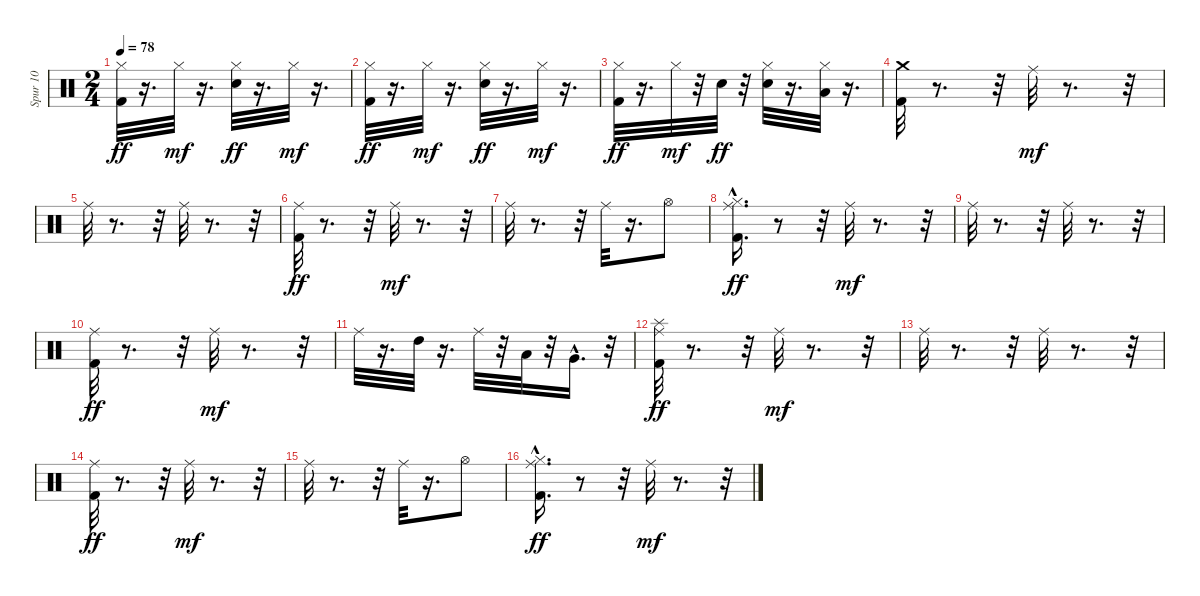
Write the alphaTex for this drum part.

\track ("Spur 10" "Spur 10") {instrument percussion}
\staff {score}
\articulation defaults
\ts (2 4)
\tempo 78
\clef neutral
\ks c
("Hi-Hat (closed)" "Kick (hit) 2").32{dy ff} r.16{d} "Hi-Hat (closed)".32{dy mf} r.16{d} ("Hi-Hat (closed)" "Snare (hit) 2").32{dy ff} r.16{d} "Hi-Hat (closed)".32{dy mf} r.16{d} |
("Hi-Hat (closed)" "Kick (hit) 2").32{dy ff} r.16{d} "Hi-Hat (closed)".32{dy mf} r.16{d} ("Hi-Hat (closed)" "Snare (hit) 2").32{dy ff} r.16{d} "Hi-Hat (closed)".32{dy mf} r.16{d} |
("Hi-Hat (closed)" "Kick (hit) 2").32{dy ff} r.16{d} "Hi-Hat (closed)".32{dy mf} r.32 "Snare (hit) 2".32{dy ff} r.32 ("Hi-Hat (closed)" "Snare (hit) 2").32 r.16{d} ("Hi-Hat (closed)" "Low Tom (hit)").32 r.16{d} |
("Crash medium (hit)" "Kick (hit) 2").32 r.8{d} r.32 "Ride (middle)".32{dy mf} r.8{d} r.32 |
"Ride (middle)".32 r.8{d} r.32 "Ride (middle)".32 r.8{d} r.32 |
("Ride (middle)" "Kick (hit) 2").32{dy ff} r.8{d} r.32 "Ride (middle)".32{dy mf} r.8{d} r.32 |
"Ride (middle)".32 r.8{d} r.32 "Ride (middle)".32 r.16{d} "Hi-Hat (open)".8 |
("Hi-Hat (closed)"{hac} "Ride (middle)" "Kick (hit) 2").16{d dy ff} r.8 r.32 "Ride (middle)".32{dy mf} r.8{d} r.32 |
"Ride (middle)".32 r.8{d} r.32 "Ride (middle)".32 r.8{d} r.32 |
("Ride (middle)" "Kick (hit) 2").32{dy ff} r.8{d} r.32 "Ride (middle)".32{dy mf} r.8{d} r.32 |
"Ride (middle)".32 r.16{d} "High Tom (hit)".32 r.16{d} "Ride (middle)".32 r.32 "Low Tom (hit)".32 r.32 "Very Low Tom (hit)"{hac}.16{d} r.32 |
("Ride (middle)" "Splash (hit)" "Kick (hit) 2").32{dy ff} r.8{d} r.32 "Ride (middle)".32{dy mf} r.8{d} r.32 |
"Ride (middle)".32 r.8{d} r.32 "Ride (middle)".32 r.8{d} r.32 |
("Ride (middle)" "Kick (hit) 2").32{dy ff} r.8{d} r.32 "Ride (middle)".32{dy mf} r.8{d} r.32 |
"Ride (middle)".32 r.8{d} r.32 "Ride (middle)".32 r.16{d} "Hi-Hat (open)".8 |
("Hi-Hat (closed)"{hac} "Ride (middle)" "Kick (hit) 2").16{d dy ff} r.8 r.32 "Ride (middle)".32{dy mf} r.8{d} r.32
